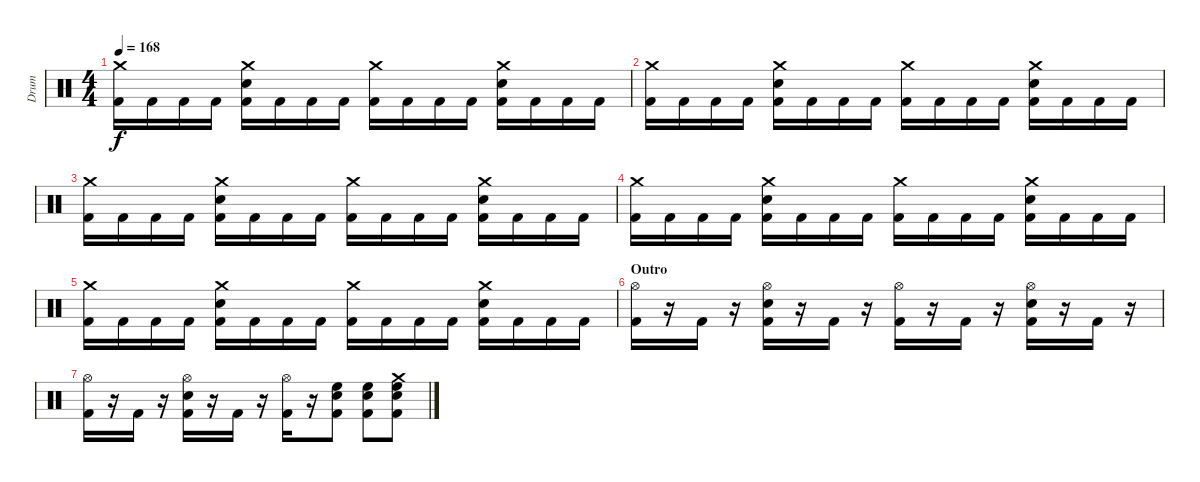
\track ("Drum" "Drum") {instrument percussion}
\staff {score}
\articulation defaults
\ts (4 4)
\tempo 168
\clef neutral
\ks c
("Crash medium (hit)" "Kick (hit) 2").16{dy f} "Kick (hit) 2".16 "Kick (hit) 2".16 "Kick (hit) 2".16 ("Crash medium (hit)" "Electric Snare (hit)" "Kick (hit) 2").16 "Kick (hit) 2".16 "Kick (hit) 2".16 "Kick (hit) 2".16 ("Crash medium (hit)" "Kick (hit) 2").16 "Kick (hit) 2".16 "Kick (hit) 2".16 "Kick (hit) 2".16 ("Crash medium (hit)" "Electric Snare (hit)" "Kick (hit) 2").16 "Kick (hit) 2".16 "Kick (hit) 2".16 "Kick (hit) 2".16 |
("Crash medium (hit)" "Kick (hit) 2").16 "Kick (hit) 2".16 "Kick (hit) 2".16 "Kick (hit) 2".16 ("Crash medium (hit)" "Electric Snare (hit)" "Kick (hit) 2").16 "Kick (hit) 2".16 "Kick (hit) 2".16 "Kick (hit) 2".16 ("Crash medium (hit)" "Kick (hit) 2").16 "Kick (hit) 2".16 "Kick (hit) 2".16 "Kick (hit) 2".16 ("Crash medium (hit)" "Electric Snare (hit)" "Kick (hit) 2").16 "Kick (hit) 2".16 "Kick (hit) 2".16 "Kick (hit) 2".16 |
("Crash medium (hit)" "Kick (hit) 2").16 "Kick (hit) 2".16 "Kick (hit) 2".16 "Kick (hit) 2".16 ("Crash medium (hit)" "Electric Snare (hit)" "Kick (hit) 2").16 "Kick (hit) 2".16 "Kick (hit) 2".16 "Kick (hit) 2".16 ("Crash medium (hit)" "Kick (hit) 2").16 "Kick (hit) 2".16 "Kick (hit) 2".16 "Kick (hit) 2".16 ("Crash medium (hit)" "Electric Snare (hit)" "Kick (hit) 2").16 "Kick (hit) 2".16 "Kick (hit) 2".16 "Kick (hit) 2".16 |
("Crash medium (hit)" "Kick (hit) 2").16 "Kick (hit) 2".16 "Kick (hit) 2".16 "Kick (hit) 2".16 ("Crash medium (hit)" "Electric Snare (hit)" "Kick (hit) 2").16 "Kick (hit) 2".16 "Kick (hit) 2".16 "Kick (hit) 2".16 ("Crash medium (hit)" "Kick (hit) 2").16 "Kick (hit) 2".16 "Kick (hit) 2".16 "Kick (hit) 2".16 ("Crash medium (hit)" "Electric Snare (hit)" "Kick (hit) 2").16 "Kick (hit) 2".16 "Kick (hit) 2".16 "Kick (hit) 2".16 |
("Crash medium (hit)" "Kick (hit) 2").16 "Kick (hit) 2".16 "Kick (hit) 2".16 "Kick (hit) 2".16 ("Crash medium (hit)" "Electric Snare (hit)" "Kick (hit) 2").16 "Kick (hit) 2".16 "Kick (hit) 2".16 "Kick (hit) 2".16 ("Crash medium (hit)" "Kick (hit) 2").16 "Kick (hit) 2".16 "Kick (hit) 2".16 "Kick (hit) 2".16 ("Crash medium (hit)" "Electric Snare (hit)" "Kick (hit) 2").16 "Kick (hit) 2".16 "Kick (hit) 2".16 "Kick (hit) 2".16 |
\section ("" "Outro")
("Hi-Hat (open)" "Kick (hit) 2").16 r.16 "Kick (hit) 2".16 r.16 ("Hi-Hat (open)" "Electric Snare (hit)" "Kick (hit) 2").16 r.16 "Kick (hit) 2".16 r.16 ("Hi-Hat (open)" "Kick (hit) 2").16 r.16 "Kick (hit) 2".16 r.16 ("Hi-Hat (open)" "Electric Snare (hit)" "Kick (hit) 2").16 r.16 "Kick (hit) 2".16 r.16 |
("Hi-Hat (open)" "Kick (hit) 2").16 r.16 "Kick (hit) 2".16 r.16 ("Hi-Hat (open)" "Electric Snare (hit)" "Kick (hit) 2").16 r.16 "Kick (hit) 2".16 r.16 ("Hi-Hat (open)" "Kick (hit) 2").16 r.16 ("High Floor Tom (hit)" "Electric Snare (hit)" "Kick (hit) 2").8 ("High Floor Tom (hit)" "Electric Snare (hit)" "Kick (hit) 2").8 ("Crash medium (hit)" "High Floor Tom (hit)" "Electric Snare (hit)" "Kick (hit) 2").8
